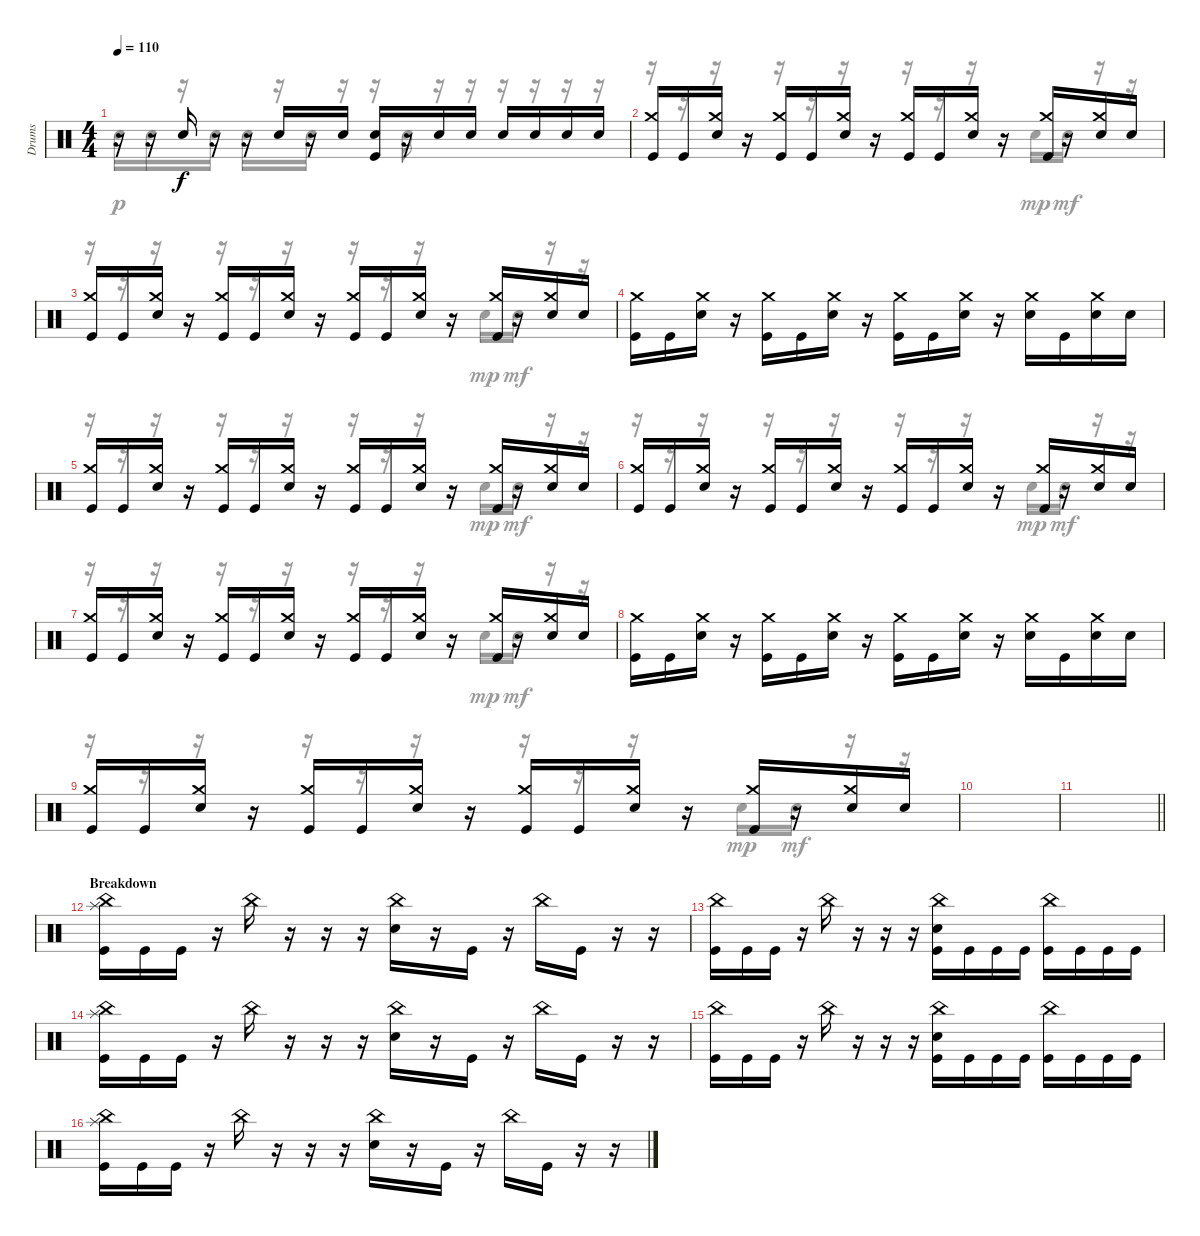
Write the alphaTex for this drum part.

\track ("Drums" "Drums") {instrument percussion}
\staff {score}
\articulation defaults
\voice
\ts (4 4)
\tempo 110
\clef neutral
\ks c
r.16{dy f} r.16 "Snare (hit) 2".16 r.16 r.16 "Snare (hit) 2".16 r.16 "Snare (hit) 2".16 ("Snare (hit) 2" "Kick (hit)").16 r.16 "Snare (hit) 2".16 "Snare (hit) 2".16 "Snare (hit) 2".16 "Snare (hit) 2".16 "Snare (hit) 2".16 "Snare (hit) 2".16 |
("Kick (hit)" "Crash medium (hit)").16 "Kick (hit)".16 ("Snare (hit) 2" "Crash medium (hit)").16 r.16 ("Kick (hit)" "Crash medium (hit)").16 "Kick (hit)".16 ("Snare (hit) 2" "Crash medium (hit)").16 r.16 ("Kick (hit)" "Crash medium (hit)").16 "Kick (hit)".16 ("Snare (hit) 2" "Crash medium (hit)").16 r.16 ("Crash medium (hit)" "Kick (hit)").16 r.16 ("Snare (hit) 2" "Crash medium (hit)").16 "Snare (hit) 2".16 |
("Kick (hit)" "Crash medium (hit)").16 "Kick (hit)".16 ("Snare (hit) 2" "Crash medium (hit)").16 r.16 ("Kick (hit)" "Crash medium (hit)").16 "Kick (hit)".16 ("Snare (hit) 2" "Crash medium (hit)").16 r.16 ("Kick (hit)" "Crash medium (hit)").16 "Kick (hit)".16 ("Snare (hit) 2" "Crash medium (hit)").16 r.16 ("Crash medium (hit)" "Kick (hit)").16 r.16 ("Snare (hit) 2" "Crash medium (hit)").16 "Snare (hit) 2".16 |
("Kick (hit)" "Crash medium (hit)").16 "Kick (hit)".16 ("Snare (hit) 2" "Crash medium (hit)").16 r.16 ("Kick (hit)" "Crash medium (hit)").16 "Kick (hit)".16 ("Snare (hit) 2" "Crash medium (hit)").16 r.16 ("Kick (hit)" "Crash medium (hit)").16 "Kick (hit)".16 ("Snare (hit) 2" "Crash medium (hit)").16 r.16 ("Crash medium (hit)" "Snare (hit) 2").16 "Kick (hit)".16 ("Snare (hit) 2" "Crash medium (hit)").16 "Snare (hit) 2".16 |
("Kick (hit)" "Crash medium (hit)").16 "Kick (hit)".16 ("Snare (hit) 2" "Crash medium (hit)").16 r.16 ("Kick (hit)" "Crash medium (hit)").16 "Kick (hit)".16 ("Snare (hit) 2" "Crash medium (hit)").16 r.16 ("Kick (hit)" "Crash medium (hit)").16 "Kick (hit)".16 ("Snare (hit) 2" "Crash medium (hit)").16 r.16 ("Crash medium (hit)" "Kick (hit)").16 r.16 ("Snare (hit) 2" "Crash medium (hit)").16 "Snare (hit) 2".16 |
("Kick (hit)" "Crash medium (hit)").16 "Kick (hit)".16 ("Snare (hit) 2" "Crash medium (hit)").16 r.16 ("Kick (hit)" "Crash medium (hit)").16 "Kick (hit)".16 ("Snare (hit) 2" "Crash medium (hit)").16 r.16 ("Kick (hit)" "Crash medium (hit)").16 "Kick (hit)".16 ("Snare (hit) 2" "Crash medium (hit)").16 r.16 ("Crash medium (hit)" "Kick (hit)").16 r.16 ("Snare (hit) 2" "Crash medium (hit)").16 "Snare (hit) 2".16 |
("Kick (hit)" "Crash medium (hit)").16 "Kick (hit)".16 ("Snare (hit) 2" "Crash medium (hit)").16 r.16 ("Kick (hit)" "Crash medium (hit)").16 "Kick (hit)".16 ("Snare (hit) 2" "Crash medium (hit)").16 r.16 ("Kick (hit)" "Crash medium (hit)").16 "Kick (hit)".16 ("Snare (hit) 2" "Crash medium (hit)").16 r.16 ("Crash medium (hit)" "Kick (hit)").16 r.16 ("Snare (hit) 2" "Crash medium (hit)").16 "Snare (hit) 2".16 |
("Kick (hit)" "Crash medium (hit)").16 "Kick (hit)".16 ("Snare (hit) 2" "Crash medium (hit)").16 r.16 ("Kick (hit)" "Crash medium (hit)").16 "Kick (hit)".16 ("Snare (hit) 2" "Crash medium (hit)").16 r.16 ("Kick (hit)" "Crash medium (hit)").16 "Kick (hit)".16 ("Snare (hit) 2" "Crash medium (hit)").16 r.16 ("Crash medium (hit)" "Snare (hit) 2").16 "Kick (hit)".16 ("Snare (hit) 2" "Crash medium (hit)").16 "Snare (hit) 2".16 |
("Kick (hit)" "Crash medium (hit)").16 "Kick (hit)".16 ("Snare (hit) 2" "Crash medium (hit)").16 r.16 ("Kick (hit)" "Crash medium (hit)").16 "Kick (hit)".16 ("Snare (hit) 2" "Crash medium (hit)").16 r.16 ("Kick (hit)" "Crash medium (hit)").16 "Kick (hit)".16 ("Snare (hit) 2" "Crash medium (hit)").16 r.16 ("Crash medium (hit)" "Kick (hit)").16 r.16 ("Snare (hit) 2" "Crash medium (hit)").16 "Snare (hit) 2".16 |
|
\barLineRight lightlight
|
\section ("" "Breakdown")
("Kick (hit)" "China (hit)" "Splash (hit)").16 "Kick (hit)".16 "Kick (hit)".16 r.16 "China (hit)".16 r.16 r.16 r.16 ("China (hit)" "Snare (hit) 2").16 r.16 "Kick (hit)".16 r.16 "China (hit)".16 "Kick (hit)".16 r.16 r.16 |
("Kick (hit)" "China (hit)").16 "Kick (hit)".16 "Kick (hit)".16 r.16 "China (hit)".16 r.16 r.16 r.16 ("China (hit)" "Snare (hit) 2" "Kick (hit)").16 "Kick (hit)".16 "Kick (hit)".16 "Kick (hit)".16 ("China (hit)" "Kick (hit)").16 "Kick (hit)".16 "Kick (hit)".16 "Kick (hit)".16 |
("Kick (hit)" "China (hit)" "Splash (hit)").16 "Kick (hit)".16 "Kick (hit)".16 r.16 "China (hit)".16 r.16 r.16 r.16 ("China (hit)" "Snare (hit) 2").16 r.16 "Kick (hit)".16 r.16 "China (hit)".16 "Kick (hit)".16 r.16 r.16 |
("Kick (hit)" "China (hit)").16 "Kick (hit)".16 "Kick (hit)".16 r.16 "China (hit)".16 r.16 r.16 r.16 ("China (hit)" "Snare (hit) 2" "Kick (hit)").16 "Kick (hit)".16 "Kick (hit)".16 "Kick (hit)".16 ("China (hit)" "Kick (hit)").16 "Kick (hit)".16 "Kick (hit)".16 "Kick (hit)".16 |
("Kick (hit)" "China (hit)" "Splash (hit)").16 "Kick (hit)".16 "Kick (hit)".16 r.16 "China (hit)".16 r.16 r.16 r.16 ("China (hit)" "Snare (hit) 2").16 r.16 "Kick (hit)".16 r.16 "China (hit)".16 "Kick (hit)".16 r.16 r.16
\voice
\clef neutral
\ottava regular
\simile none
\ks c "Snare (hit) 2".16{dy p} "Snare (hit) 2".16
r.16 "Snare (hit) 2".16 "Snare (hit) 2".16 r.16 "Snare (hit) 2".16 r.16 r.16 "Snare (hit) 2".16 r.16 r.16 r.16 r.16 r.16 r.16 |
r.16 r.16 r.16 r.16 r.16 r.16 r.16 r.16 r.16 r.16 r.16 r.16 "Snare (hit) 2".16{dy mp} "Snare (hit) 2".16{dy mf} r.16 r.16 |
r.16 r.16 r.16 r.16 r.16 r.16 r.16 r.16 r.16 r.16 r.16 r.16 "Snare (hit) 2".16{dy mp} "Snare (hit) 2".16{dy mf} r.16 r.16 |
|
r.16 r.16 r.16 r.16 r.16 r.16 r.16 r.16 r.16 r.16 r.16 r.16 "Snare (hit) 2".16{dy mp} "Snare (hit) 2".16{dy mf} r.16 r.16 |
r.16 r.16 r.16 r.16 r.16 r.16 r.16 r.16 r.16 r.16 r.16 r.16 "Snare (hit) 2".16{dy mp} "Snare (hit) 2".16{dy mf} r.16 r.16 |
r.16 r.16 r.16 r.16 r.16 r.16 r.16 r.16 r.16 r.16 r.16 r.16 "Snare (hit) 2".16{dy mp} "Snare (hit) 2".16{dy mf} r.16 r.16 |
|
r.16 r.16 r.16 r.16 r.16 r.16 r.16 r.16 r.16 r.16 r.16 r.16 "Snare (hit) 2".16{dy mp} "Snare (hit) 2".16{dy mf} r.16 r.16 |
|
\barLineRight lightlight
|
|
|
|
|
